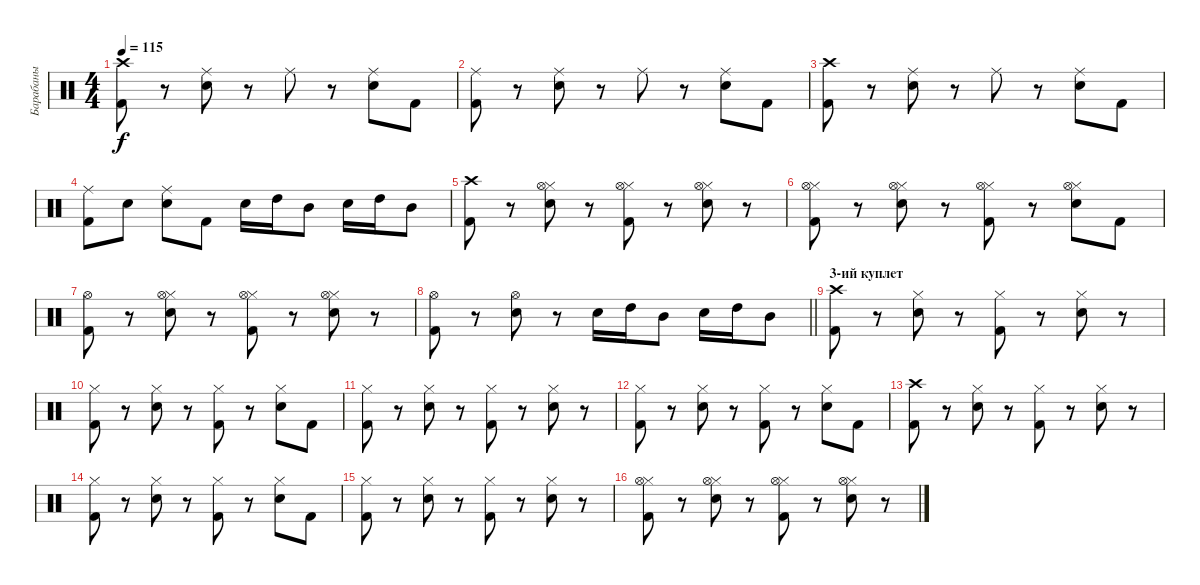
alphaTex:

\track ("Барабаны" "Барабаны") {instrument percussion}
\staff {score}
\articulation defaults
\ts (4 4)
\tempo 115
\clef neutral
\ks c
("Kick (hit) 2" "Crash high (hit)").8{dy f} r.8 ("Snare (hit) 2" "Ride (middle)").8 r.8 "Ride (middle)".8 r.8 ("Snare (hit) 2" "Ride (middle)").8 "Kick (hit) 2".8 |
("Kick (hit) 2" "Ride (middle)").8 r.8 ("Snare (hit) 2" "Ride (middle)").8 r.8 "Ride (middle)".8 r.8 ("Snare (hit) 2" "Ride (middle)").8 "Kick (hit) 2".8 |
("Kick (hit) 2" "Crash high (hit)").8 r.8 ("Snare (hit) 2" "Ride (middle)").8 r.8 "Ride (middle)".8 r.8 ("Snare (hit) 2" "Ride (middle)").8 "Kick (hit) 2".8 |
("Kick (hit) 2" "Ride (middle)").8 "Snare (hit) 2".8 ("Snare (hit) 2" "Ride (middle)").8 "Kick (hit) 2".8 "Electric Snare (hit)".16 "High Tom (hit)".16 "Mid Tom (hit)".8 "Electric Snare (hit)".16 "High Tom (hit)".16 "Mid Tom (hit)".8 |
("Kick (hit) 2" "Crash high (hit)").8 r.8 ("Snare (hit) 2" "Hi-Hat (closed)" "Hi-Hat (open)").8 r.8 ("Kick (hit) 2" "Hi-Hat (closed)" "Hi-Hat (open)").8 r.8 ("Snare (hit) 2" "Hi-Hat (closed)" "Hi-Hat (open)").8 r.8 |
("Kick (hit) 2" "Hi-Hat (closed)" "Hi-Hat (open)").8 r.8 ("Snare (hit) 2" "Hi-Hat (closed)" "Hi-Hat (open)").8 r.8 ("Kick (hit) 2" "Hi-Hat (closed)" "Hi-Hat (open)").8 r.8 ("Snare (hit) 2" "Hi-Hat (closed)" "Hi-Hat (open)").8 "Kick (hit) 2".8 |
("Kick (hit) 2" "Hi-Hat (open)").8 r.8 ("Snare (hit) 2" "Hi-Hat (closed)" "Hi-Hat (open)").8 r.8 ("Kick (hit) 2" "Hi-Hat (closed)" "Hi-Hat (open)").8 r.8 ("Snare (hit) 2" "Hi-Hat (closed)" "Hi-Hat (open)").8 r.8 |
\barLineRight lightlight
("Kick (hit) 2" "Hi-Hat (open)").8 r.8 ("Snare (hit) 2" "Hi-Hat (open)").8 r.8 "Electric Snare (hit)".16 "High Tom (hit)".16 "Mid Tom (hit)".8 "Electric Snare (hit)".16 "High Tom (hit)".16 "Mid Tom (hit)".8 |
\section ("" "3-ий куплет")
("Kick (hit) 2" "Crash high (hit)").8 r.8 ("Snare (hit) 2" "Hi-Hat (closed)").8 r.8 ("Kick (hit) 2" "Hi-Hat (closed)").8 r.8 ("Snare (hit) 2" "Hi-Hat (closed)").8 r.8 |
("Kick (hit) 2" "Hi-Hat (closed)").8 r.8 ("Snare (hit) 2" "Hi-Hat (closed)").8 r.8 ("Kick (hit) 2" "Hi-Hat (closed)").8 r.8 ("Snare (hit) 2" "Hi-Hat (closed)").8 "Kick (hit) 2".8 |
("Kick (hit) 2" "Hi-Hat (closed)").8 r.8 ("Snare (hit) 2" "Hi-Hat (closed)").8 r.8 ("Kick (hit) 2" "Hi-Hat (closed)").8 r.8 ("Snare (hit) 2" "Hi-Hat (closed)").8 r.8 |
("Kick (hit) 2" "Hi-Hat (closed)").8 r.8 ("Snare (hit) 2" "Hi-Hat (closed)").8 r.8 ("Kick (hit) 2" "Hi-Hat (closed)").8 r.8 ("Snare (hit) 2" "Hi-Hat (closed)").8 "Kick (hit) 2".8 |
("Kick (hit) 2" "Crash high (hit)").8 r.8 ("Snare (hit) 2" "Hi-Hat (closed)").8 r.8 ("Kick (hit) 2" "Hi-Hat (closed)").8 r.8 ("Snare (hit) 2" "Hi-Hat (closed)").8 r.8 |
("Kick (hit) 2" "Hi-Hat (closed)").8 r.8 ("Snare (hit) 2" "Hi-Hat (closed)").8 r.8 ("Kick (hit) 2" "Hi-Hat (closed)").8 r.8 ("Snare (hit) 2" "Hi-Hat (closed)").8 "Kick (hit) 2".8 |
("Kick (hit) 2" "Hi-Hat (closed)").8 r.8 ("Snare (hit) 2" "Hi-Hat (closed)").8 r.8 ("Kick (hit) 2" "Hi-Hat (closed)").8 r.8 ("Snare (hit) 2" "Hi-Hat (closed)").8 r.8 |
("Kick (hit) 2" "Hi-Hat (closed)" "Hi-Hat (open)").8 r.8 ("Snare (hit) 2" "Hi-Hat (closed)" "Hi-Hat (open)").8 r.8 ("Kick (hit) 2" "Hi-Hat (closed)" "Hi-Hat (open)").8 r.8 ("Snare (hit) 2" "Hi-Hat (closed)" "Hi-Hat (open)").8 r.8
